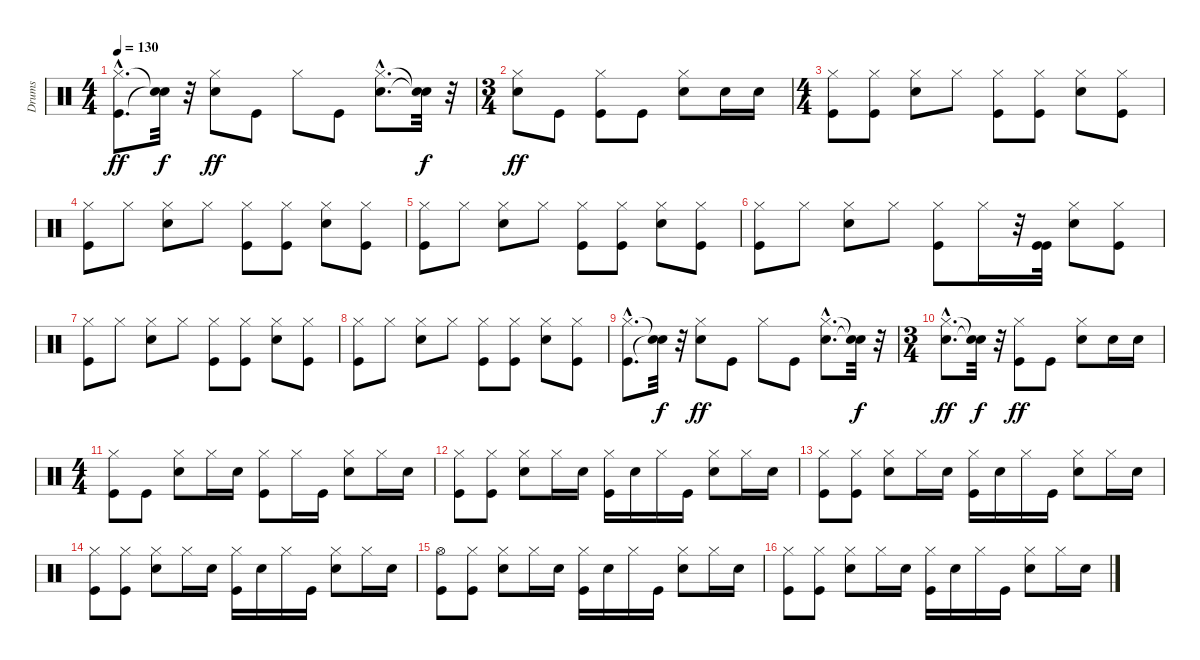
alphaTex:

\track ("Drums" "Drums") {instrument percussion}
\staff {score}
\articulation defaults
\ts (4 4)
\tempo 130
\clef neutral
\ks c
("Kick (hit)"{hac} "Hi-Hat (closed)"{hac}).8{d dy ff} ("Snare (hit)"{t} "Snare (hit)"{t}).32{dy f} r.32 ("Snare (hit) 2" "Hi-Hat (closed)").8{dy ff} "Kick (hit)".8 "Hi-Hat (closed)".8 "Kick (hit)".8 ("Snare (hit) 2"{hac} "Hi-Hat (closed)"{hac}).8{d} ("Snare (hit)"{t} "Snare (hit)"{t}).32{dy f} r.32 |
\ts (3 4)
("Snare (hit) 2" "Hi-Hat (closed)").8{dy ff} "Kick (hit)".8 ("Kick (hit)" "Hi-Hat (closed)").8 "Kick (hit)".8 ("Snare (hit) 2" "Hi-Hat (closed)").8 "Snare (hit) 2".16 "Snare (hit) 2".16 |
\ts (4 4)
("Kick (hit)" "Hi-Hat (closed)").8 ("Kick (hit)" "Hi-Hat (closed)").8 ("Snare (hit) 2" "Hi-Hat (closed)").8 "Hi-Hat (closed)".8 ("Kick (hit)" "Hi-Hat (closed)").8 ("Kick (hit)" "Hi-Hat (closed)").8 ("Snare (hit) 2" "Hi-Hat (closed)").8 ("Kick (hit)" "Hi-Hat (closed)").8 |
("Kick (hit)" "Hi-Hat (closed)").8 "Hi-Hat (closed)".8 ("Snare (hit) 2" "Hi-Hat (closed)").8 "Hi-Hat (closed)".8 ("Kick (hit)" "Hi-Hat (closed)").8 ("Kick (hit)" "Hi-Hat (closed)").8 ("Snare (hit) 2" "Hi-Hat (closed)").8 ("Kick (hit)" "Hi-Hat (closed)").8 |
("Kick (hit)" "Hi-Hat (closed)").8 "Hi-Hat (closed)".8 ("Snare (hit) 2" "Hi-Hat (closed)").8 "Hi-Hat (closed)".8 ("Kick (hit)" "Hi-Hat (closed)").8 ("Kick (hit)" "Hi-Hat (closed)").8 ("Snare (hit) 2" "Hi-Hat (closed)").8 ("Kick (hit)" "Hi-Hat (closed)").8 |
("Kick (hit)" "Hi-Hat (closed)").8 "Hi-Hat (closed)".8 ("Snare (hit) 2" "Hi-Hat (closed)").8 "Hi-Hat (closed)".8 ("Kick (hit)" "Hi-Hat (closed)").8 "Hi-Hat (closed)".16 r.32 ("Kick (hit)" "Kick (hit)").32 ("Snare (hit) 2" "Hi-Hat (closed)").8 ("Kick (hit)" "Hi-Hat (closed)").8 |
("Kick (hit)" "Hi-Hat (closed)").8 "Hi-Hat (closed)".8 ("Snare (hit) 2" "Hi-Hat (closed)").8 "Hi-Hat (closed)".8 ("Kick (hit)" "Hi-Hat (closed)").8 ("Kick (hit)" "Hi-Hat (closed)").8 ("Snare (hit) 2" "Hi-Hat (closed)").8 ("Kick (hit)" "Hi-Hat (closed)").8 |
("Kick (hit)" "Hi-Hat (closed)").8 "Hi-Hat (closed)".8 ("Snare (hit) 2" "Hi-Hat (closed)").8 "Hi-Hat (closed)".8 ("Kick (hit)" "Hi-Hat (closed)").8 ("Kick (hit)" "Hi-Hat (closed)").8 ("Snare (hit) 2" "Hi-Hat (closed)").8 ("Kick (hit)" "Hi-Hat (closed)").8 |
("Kick (hit)"{hac} "Hi-Hat (closed)"{hac}).8{d} ("Snare (hit)"{t} "Snare (hit)"{t}).32{dy f} r.32 ("Snare (hit) 2" "Hi-Hat (closed)").8{dy ff} "Kick (hit)".8 "Hi-Hat (closed)".8 "Kick (hit)".8 ("Snare (hit) 2"{hac} "Hi-Hat (closed)"{hac}).8{d} ("Snare (hit)"{t} "Snare (hit)"{t}).32{dy f} r.32 |
\ts (3 4)
("Snare (hit) 2"{hac} "Hi-Hat (closed)"{hac}).8{d dy ff} ("Snare (hit)"{t} "Snare (hit)"{t}).32{dy f} r.32 ("Kick (hit)" "Hi-Hat (closed)").8{dy ff} "Kick (hit)".8 ("Snare (hit) 2" "Hi-Hat (closed)").8 "Snare (hit) 2".16 "Snare (hit) 2".16 |
\ts (4 4)
("Kick (hit)" "Hi-Hat (closed)").8 "Kick (hit)".8 ("Snare (hit) 2" "Hi-Hat (closed)").8 "Hi-Hat (closed)".16 "Snare (hit) 2".16 ("Kick (hit)" "Hi-Hat (closed)").8 "Hi-Hat (closed)".16 "Kick (hit)".16 ("Snare (hit) 2" "Hi-Hat (closed)").8 "Hi-Hat (closed)".16 "Snare (hit) 2".16 |
("Kick (hit)" "Hi-Hat (closed)").8 ("Kick (hit)" "Hi-Hat (closed)").8 ("Snare (hit) 2" "Hi-Hat (closed)").8 "Hi-Hat (closed)".16 "Snare (hit) 2".16 ("Kick (hit)" "Hi-Hat (closed)").16 "Snare (hit) 2".16 "Hi-Hat (closed)".16 "Kick (hit)".16 ("Snare (hit) 2" "Hi-Hat (closed)").8 "Hi-Hat (closed)".16 "Snare (hit) 2".16 |
("Kick (hit)" "Hi-Hat (closed)").8 ("Kick (hit)" "Hi-Hat (closed)").8 ("Snare (hit) 2" "Hi-Hat (closed)").8 "Hi-Hat (closed)".16 "Snare (hit) 2".16 ("Kick (hit)" "Hi-Hat (closed)").16 "Snare (hit) 2".16 "Hi-Hat (closed)".16 "Kick (hit)".16 ("Snare (hit) 2" "Hi-Hat (closed)").8 "Hi-Hat (closed)".16 "Snare (hit) 2".16 |
("Kick (hit)" "Hi-Hat (closed)").8 ("Kick (hit)" "Hi-Hat (closed)").8 ("Snare (hit) 2" "Hi-Hat (closed)").8 "Hi-Hat (closed)".16 "Snare (hit) 2".16 ("Kick (hit)" "Hi-Hat (closed)").16 "Snare (hit) 2".16 "Hi-Hat (closed)".16 "Kick (hit)".16 ("Snare (hit) 2" "Hi-Hat (closed)").8 "Hi-Hat (closed)".16 "Snare (hit) 2".16 |
("Kick (hit)" "Hi-Hat (open)").8 ("Kick (hit)" "Hi-Hat (closed)").8 ("Snare (hit) 2" "Hi-Hat (closed)").8 "Hi-Hat (closed)".16 "Snare (hit) 2".16 ("Kick (hit)" "Hi-Hat (closed)").16 "Snare (hit) 2".16 "Hi-Hat (closed)".16 "Kick (hit)".16 ("Snare (hit) 2" "Hi-Hat (closed)").8 "Hi-Hat (closed)".16 "Snare (hit) 2".16 |
("Kick (hit)" "Hi-Hat (closed)").8 ("Kick (hit)" "Hi-Hat (closed)").8 ("Snare (hit) 2" "Hi-Hat (closed)").8 "Hi-Hat (closed)".16 "Snare (hit) 2".16 ("Kick (hit)" "Hi-Hat (closed)").16 "Snare (hit) 2".16 "Hi-Hat (closed)".16 "Kick (hit)".16 ("Snare (hit) 2" "Hi-Hat (closed)").8 "Hi-Hat (closed)".16 "Snare (hit) 2".16
